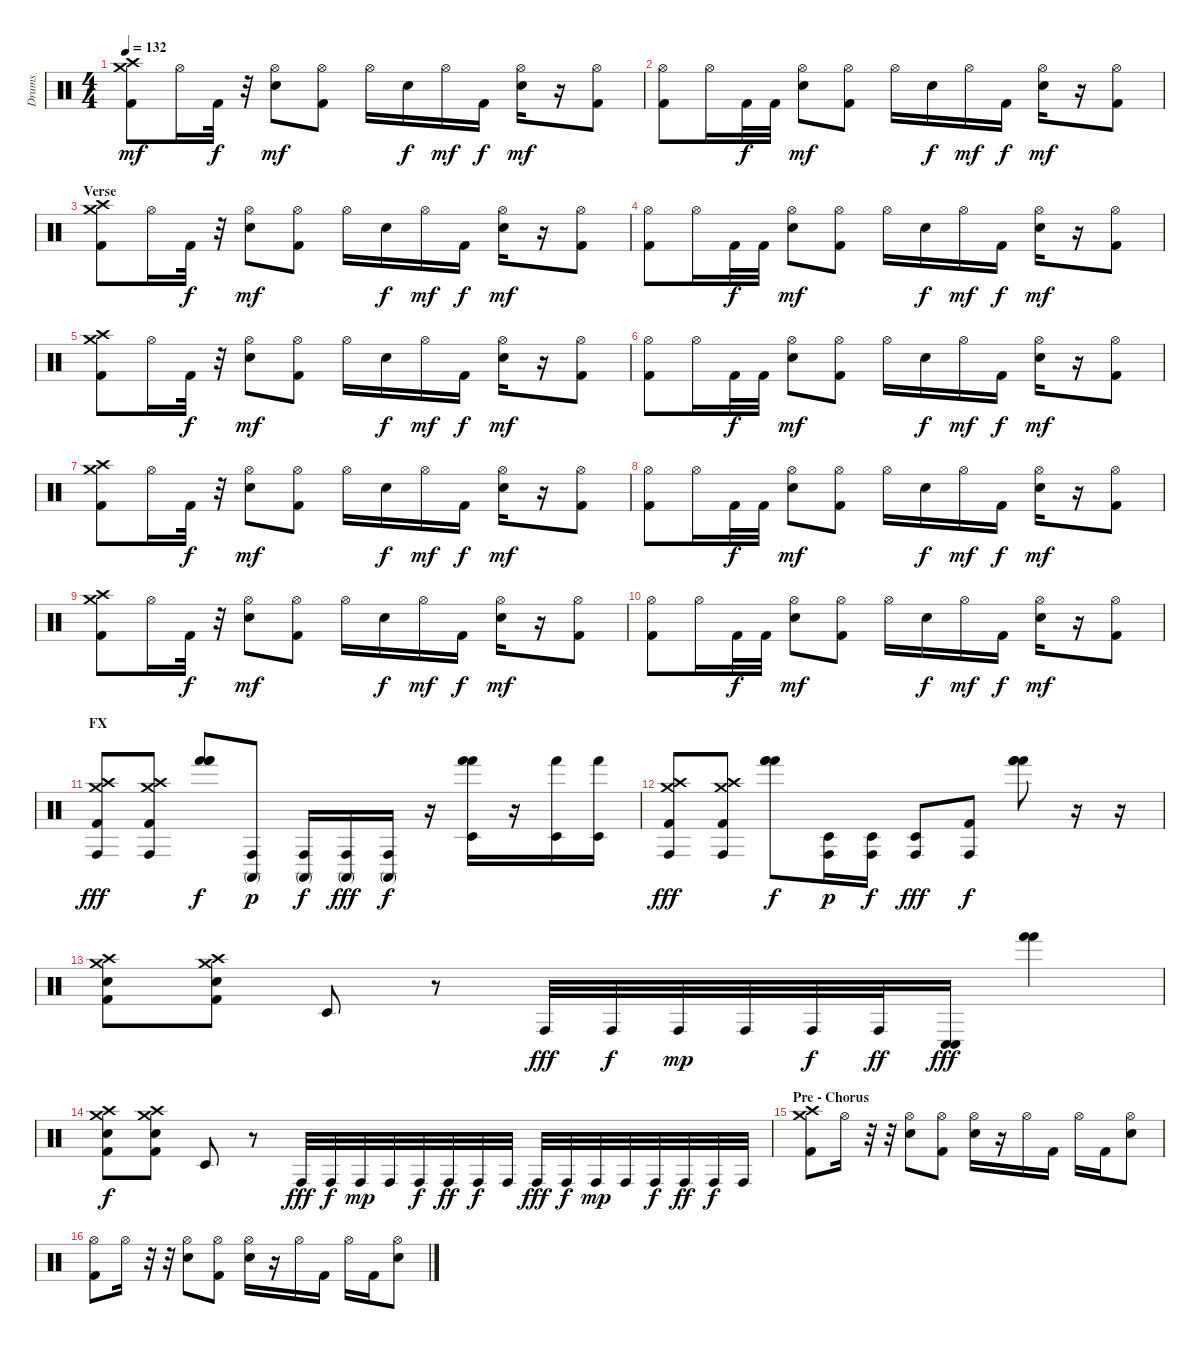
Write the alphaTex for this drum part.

\track ("Drums" "Drums") {instrument percussion}
\staff {score}
\articulation defaults
\ts (4 4)
\tempo 132
\clef neutral
\ks c
("Crash high (hit)" "Crash medium (hit)" "Kick (hit) 2").8{dy mf} "Hi-Hat (open)".16 "Kick (hit) 2".32{dy f} r.32 ("Hi-Hat (open)" "Snare (hit) 2").8{dy mf} ("Hi-Hat (open)" "Kick (hit) 2").8 "Hi-Hat (open)".16 "Snare (hit) 2".16{dy f} "Hi-Hat (open)".16{dy mf} "Kick (hit) 2".16{dy f} ("Hi-Hat (open)" "Snare (hit) 2").16{dy mf} r.16 ("Hi-Hat (open)" "Kick (hit) 2").8 |
("Hi-Hat (open)" "Kick (hit) 2").8 "Hi-Hat (open)".16 "Kick (hit) 2".32{dy f} "Kick (hit) 2".32 ("Hi-Hat (open)" "Snare (hit) 2").8{dy mf} ("Hi-Hat (open)" "Kick (hit) 2").8 "Hi-Hat (open)".16 "Snare (hit) 2".16{dy f} "Hi-Hat (open)".16{dy mf} "Kick (hit) 2".16{dy f} ("Hi-Hat (open)" "Snare (hit) 2").16{dy mf} r.16 ("Hi-Hat (open)" "Kick (hit) 2").8 |
\section ("" "Verse")
("Crash high (hit)" "Crash medium (hit)" "Kick (hit) 2").8 "Hi-Hat (open)".16 "Kick (hit) 2".32{dy f} r.32 ("Hi-Hat (open)" "Snare (hit) 2").8{dy mf} ("Hi-Hat (open)" "Kick (hit) 2").8 "Hi-Hat (open)".16 "Snare (hit) 2".16{dy f} "Hi-Hat (open)".16{dy mf} "Kick (hit) 2".16{dy f} ("Hi-Hat (open)" "Snare (hit) 2").16{dy mf} r.16 ("Hi-Hat (open)" "Kick (hit) 2").8 |
("Hi-Hat (open)" "Kick (hit) 2").8 "Hi-Hat (open)".16 "Kick (hit) 2".32{dy f} "Kick (hit) 2".32 ("Hi-Hat (open)" "Snare (hit) 2").8{dy mf} ("Hi-Hat (open)" "Kick (hit) 2").8 "Hi-Hat (open)".16 "Snare (hit) 2".16{dy f} "Hi-Hat (open)".16{dy mf} "Kick (hit) 2".16{dy f} ("Hi-Hat (open)" "Snare (hit) 2").16{dy mf} r.16 ("Hi-Hat (open)" "Kick (hit) 2").8 |
("Crash high (hit)" "Crash medium (hit)" "Kick (hit) 2").8 "Hi-Hat (open)".16 "Kick (hit) 2".32{dy f} r.32 ("Hi-Hat (open)" "Snare (hit) 2").8{dy mf} ("Hi-Hat (open)" "Kick (hit) 2").8 "Hi-Hat (open)".16 "Snare (hit) 2".16{dy f} "Hi-Hat (open)".16{dy mf} "Kick (hit) 2".16{dy f} ("Hi-Hat (open)" "Snare (hit) 2").16{dy mf} r.16 ("Hi-Hat (open)" "Kick (hit) 2").8 |
("Hi-Hat (open)" "Kick (hit) 2").8 "Hi-Hat (open)".16 "Kick (hit) 2".32{dy f} "Kick (hit) 2".32 ("Hi-Hat (open)" "Snare (hit) 2").8{dy mf} ("Hi-Hat (open)" "Kick (hit) 2").8 "Hi-Hat (open)".16 "Snare (hit) 2".16{dy f} "Hi-Hat (open)".16{dy mf} "Kick (hit) 2".16{dy f} ("Hi-Hat (open)" "Snare (hit) 2").16{dy mf} r.16 ("Hi-Hat (open)" "Kick (hit) 2").8 |
("Crash high (hit)" "Crash medium (hit)" "Kick (hit) 2").8 "Hi-Hat (open)".16 "Kick (hit) 2".32{dy f} r.32 ("Hi-Hat (open)" "Snare (hit) 2").8{dy mf} ("Hi-Hat (open)" "Kick (hit) 2").8 "Hi-Hat (open)".16 "Snare (hit) 2".16{dy f} "Hi-Hat (open)".16{dy mf} "Kick (hit) 2".16{dy f} ("Hi-Hat (open)" "Snare (hit) 2").16{dy mf} r.16 ("Hi-Hat (open)" "Kick (hit) 2").8 |
("Hi-Hat (open)" "Kick (hit) 2").8 "Hi-Hat (open)".16 "Kick (hit) 2".32{dy f} "Kick (hit) 2".32 ("Hi-Hat (open)" "Snare (hit) 2").8{dy mf} ("Hi-Hat (open)" "Kick (hit) 2").8 "Hi-Hat (open)".16 "Snare (hit) 2".16{dy f} "Hi-Hat (open)".16{dy mf} "Kick (hit) 2".16{dy f} ("Hi-Hat (open)" "Snare (hit) 2").16{dy mf} r.16 ("Hi-Hat (open)" "Kick (hit) 2").8 |
("Crash high (hit)" "Crash medium (hit)" "Kick (hit) 2").8 "Hi-Hat (open)".16 "Kick (hit) 2".32{dy f} r.32 ("Hi-Hat (open)" "Snare (hit) 2").8{dy mf} ("Hi-Hat (open)" "Kick (hit) 2").8 "Hi-Hat (open)".16 "Snare (hit) 2".16{dy f} "Hi-Hat (open)".16{dy mf} "Kick (hit) 2".16{dy f} ("Hi-Hat (open)" "Snare (hit) 2").16{dy mf} r.16 ("Hi-Hat (open)" "Kick (hit) 2").8 |
("Hi-Hat (open)" "Kick (hit) 2").8 "Hi-Hat (open)".16 "Kick (hit) 2".32{dy f} "Kick (hit) 2".32 ("Hi-Hat (open)" "Snare (hit) 2").8{dy mf} ("Hi-Hat (open)" "Kick (hit) 2").8 "Hi-Hat (open)".16 "Snare (hit) 2".16{dy f} "Hi-Hat (open)".16{dy mf} "Kick (hit) 2".16{dy f} ("Hi-Hat (open)" "Snare (hit) 2").16{dy mf} r.16 ("Hi-Hat (open)" "Kick (hit) 2").8 |
\section ("" "FX")
("Kick (hit) 2" "Crash high (hit)" "Crash medium (hit)" "Conga high (hit)").8{dy fff} ("Kick (hit) 2" "Crash medium (hit)" "Crash high (hit)" "Conga high (hit)").8 ("Hand (hit)" "Hand (hit)" "Hand (hit)").8{dy f} ("Conga high (mute)" "Conga high (hit)").8{dy p} ("Conga high (mute)" "Conga high (hit)").16{dy f} ("Conga high (mute)" "Conga high (hit)").16{dy fff} ("Conga high (mute)" "Conga high (hit)").16{dy f} r.16 ("Hand (hit)" "Hand (hit)" "Timbale low (hit)").16 r.16 ("Hand (hit)" "Timbale low (hit)").16 ("Hand (hit)" "Timbale low (hit)").16 |
("Kick (hit) 2" "Crash high (hit)" "Crash medium (hit)" "Conga high (hit)").8{dy fff} ("Kick (hit) 2" "Crash medium (hit)" "Crash high (hit)" "Conga high (hit)").8 ("Hand (hit)" "Hand (hit)" "Hand (hit)").8{dy f} ("Timbale low (hit)" "Conga high (hit)").16{dy p} ("Timbale low (hit)" "Conga high (hit)").16{dy f} ("Timbale low (hit)" "Conga high (hit)").8{dy fff} ("Kick (hit) 2" "Conga high (hit)").8{dy f} ("Hand (hit)" "Hand (hit)" "Hand (hit)").8 r.16 r.16 |
("Crash high (hit)" "Crash medium (hit)" "Snare (hit) 2" "Kick (hit) 2").8 ("Crash high (hit)" "Crash medium (hit)" "Snare (hit) 2" "Kick (hit) 2").8 "Timbale low (hit)".8 r.8 "Conga high (hit)".32{dy fff} "Conga high (hit)".32{dy f} "Conga high (hit)".32{dy mp} "Conga high (hit)".32 "Conga high (hit)".32{dy f} "Conga high (hit)".32{dy ff} ("Conga low (hit)" "Conga low (hit)").16{dy fff} ("Hand (hit)" "Hand (hit)").4 |
("Crash high (hit)" "Crash medium (hit)" "Snare (hit) 2" "Kick (hit) 2").8{dy f} ("Crash high (hit)" "Crash medium (hit)" "Snare (hit) 2" "Kick (hit) 2").8 "Timbale low (hit)".8 r.8 "Conga high (hit)".32{dy fff} "Conga high (hit)".32{dy f} "Conga high (hit)".32{dy mp} "Conga high (hit)".32 "Conga high (hit)".32{dy f} "Conga high (hit)".32{dy ff} "Conga high (hit)".32{dy f} "Conga high (hit)".32 "Conga high (hit)".32{dy fff} "Conga high (hit)".32{dy f} "Conga high (hit)".32{dy mp} "Conga high (hit)".32 "Conga high (hit)".32{dy f} "Conga high (hit)".32{dy ff} "Conga high (hit)".32{dy f} "Conga high (hit)".32 |
\section ("" "Pre - Chorus")
("Crash medium (hit)" "Crash high (hit)" "Kick (hit) 2").8 "Hi-Hat (open)".16 r.32 r.32 ("Hi-Hat (open)" "Snare (hit) 2").8 ("Hi-Hat (open)" "Kick (hit) 2").8 ("Hi-Hat (open)" "Snare (hit) 2").16 r.16 "Hi-Hat (open)".16 "Kick (hit) 2".16 "Hi-Hat (open)".16 "Kick (hit) 2".16 ("Hi-Hat (open)" "Snare (hit) 2").8 |
("Hi-Hat (open)" "Kick (hit) 2").8 "Hi-Hat (open)".16 r.32 r.32 ("Hi-Hat (open)" "Snare (hit) 2").8 ("Hi-Hat (open)" "Kick (hit) 2").8 ("Hi-Hat (open)" "Snare (hit) 2").16 r.16 "Hi-Hat (open)".16 "Kick (hit) 2".16 "Hi-Hat (open)".16 "Kick (hit) 2".16 ("Hi-Hat (open)" "Snare (hit) 2").8
